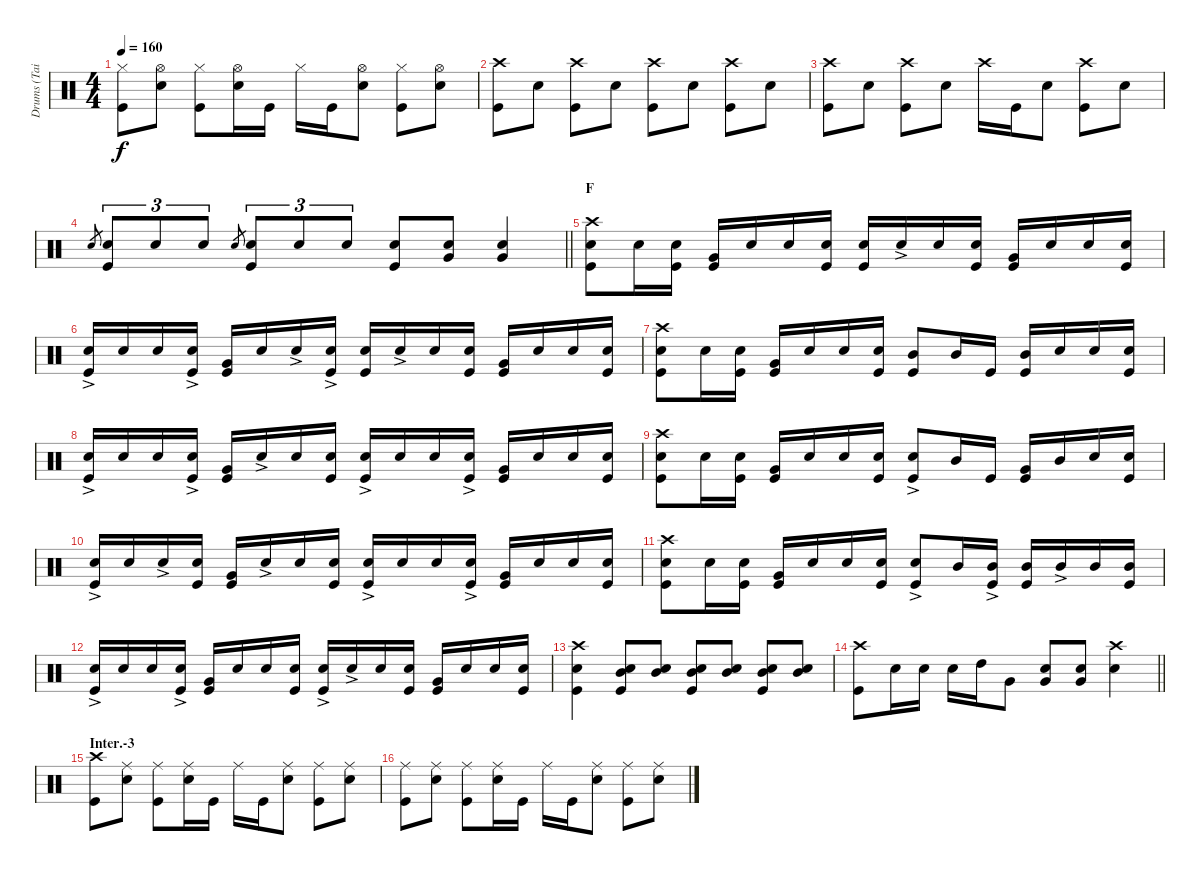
\track ("Drums (Tainaka Ritsu)" "Drums (Tai") {instrument percussion}
\staff {score}
\articulation defaults
\ts (4 4)
\tempo 160
\clef neutral
\ks c
("Hi-Hat (closed)" "Kick (hit)").8{dy f} ("Hi-Hat (open)" "Snare (hit) 2").8 ("Hi-Hat (closed)" "Kick (hit)").8 ("Hi-Hat (open)" "Snare (hit) 2").16 "Kick (hit)".16 "Hi-Hat (closed)".16 "Kick (hit)".16 ("Hi-Hat (open)" "Snare (hit) 2").8 ("Hi-Hat (closed)" "Kick (hit)").8 ("Hi-Hat (open)" "Snare (hit) 2").8 |
("Crash high (hit)" "Kick (hit)").8 "Snare (hit) 2".8 ("Crash high (hit)" "Kick (hit)").8 "Snare (hit) 2".8 ("Crash high (hit)" "Kick (hit)").8 "Snare (hit) 2".8 ("Crash high (hit)" "Kick (hit)").8 "Snare (hit) 2".8 |
("Crash high (hit)" "Kick (hit)").8 "Snare (hit) 2".8 ("Crash high (hit)" "Kick (hit)").8 "Snare (hit) 2".8 "Crash high (hit)".16 "Kick (hit)".16 "Snare (hit) 2".8 ("Crash high (hit)" "Kick (hit)").8 "Snare (hit) 2".8 |
\barLineRight lightlight "Snare (hit) 2".8{gr}
("Snare (hit) 2" "Kick (hit)").8{tu (3 2)} "Snare (hit) 2".8{tu (3 2)} "Snare (hit) 2".8{tu (3 2)} "Snare (hit) 2".8{gr} ("Snare (hit) 2" "Kick (hit)").8{tu (3 2)} "Snare (hit) 2".8{tu (3 2)} "Snare (hit) 2".8{tu (3 2)} ("Snare (hit) 2" "Kick (hit)").8 ("Very Low Tom (hit)" "Snare (hit) 2").8 ("Very Low Tom (hit)" "Snare (hit) 2").4 |
\section ("" "F")
("Crash high (hit)" "Snare (hit) 2" "Kick (hit)").8 "Snare (hit) 2".16 ("Snare (hit) 2" "Kick (hit)").16 ("Very Low Tom (hit)" "Kick (hit)").16 "Snare (hit) 2".16 "Snare (hit) 2".16 ("Snare (hit) 2" "Kick (hit)").16 ("Snare (hit) 2" "Kick (hit)").16 "Snare (hit) 2"{ac}.16 "Snare (hit) 2".16 ("Snare (hit) 2" "Kick (hit)").16 ("Very Low Tom (hit)" "Kick (hit)").16 "Snare (hit) 2".16 "Snare (hit) 2".16 ("Snare (hit) 2" "Kick (hit)").16 |
("Snare (hit) 2"{ac} "Kick (hit)").16 "Snare (hit) 2".16 "Snare (hit) 2".16 ("Snare (hit) 2"{ac} "Kick (hit)").16 ("Very Low Tom (hit)" "Kick (hit)").16 "Snare (hit) 2".16 "Snare (hit) 2"{ac}.16 ("Snare (hit) 2"{ac} "Kick (hit)").16 ("Snare (hit) 2" "Kick (hit)").16 "Snare (hit) 2"{ac}.16 "Snare (hit) 2".16 ("Snare (hit) 2" "Kick (hit)").16 ("Very Low Tom (hit)" "Kick (hit)").16 "Snare (hit) 2".16 "Snare (hit) 2".16 ("Snare (hit) 2" "Kick (hit)").16 |
("Crash high (hit)" "Snare (hit) 2" "Kick (hit)").8 "Snare (hit) 2".16 ("Snare (hit) 2" "Kick (hit)").16 ("Very Low Tom (hit)" "Kick (hit)").16 "Snare (hit) 2".16 "Snare (hit) 2".16 ("Snare (hit) 2" "Kick (hit)").16 ("Mid Tom (hit)" "Kick (hit)").8 "Mid Tom (hit)".16 "Kick (hit)".16 ("Mid Tom (hit)" "Kick (hit)").16 "Snare (hit) 2".16 "Snare (hit) 2".16 ("Snare (hit) 2" "Kick (hit)").16 |
("Snare (hit) 2"{ac} "Kick (hit)").16 "Snare (hit) 2".16 "Snare (hit) 2".16 ("Snare (hit) 2"{ac} "Kick (hit)").16 ("Very Low Tom (hit)" "Kick (hit)").16 "Snare (hit) 2"{ac}.16 "Snare (hit) 2".16 ("Snare (hit) 2" "Kick (hit)").16 ("Snare (hit) 2"{ac} "Kick (hit)").16 "Snare (hit) 2".16 "Snare (hit) 2".16 ("Snare (hit) 2"{ac} "Kick (hit)").16 ("Very Low Tom (hit)" "Kick (hit)").16 "Snare (hit) 2".16 "Snare (hit) 2".16 ("Snare (hit) 2" "Kick (hit)").16 |
("Crash high (hit)" "Snare (hit) 2" "Kick (hit)").8 "Snare (hit) 2".16 ("Snare (hit) 2" "Kick (hit)").16 ("Very Low Tom (hit)" "Kick (hit)").16 "Snare (hit) 2".16 "Snare (hit) 2".16 ("Snare (hit) 2" "Kick (hit)").16 ("Snare (hit) 2"{ac} "Kick (hit)").8 "Mid Tom (hit)".16 "Kick (hit)".16 ("Very Low Tom (hit)" "Kick (hit)").16 "Mid Tom (hit)".16 "Snare (hit) 2".16 ("Snare (hit) 2" "Kick (hit)").16 |
("Snare (hit) 2"{ac} "Kick (hit)").16 "Snare (hit) 2".16 "Snare (hit) 2"{ac}.16 ("Snare (hit) 2" "Kick (hit)").16 ("Very Low Tom (hit)" "Kick (hit)").16 "Snare (hit) 2"{ac}.16 "Snare (hit) 2".16 ("Snare (hit) 2" "Kick (hit)").16 ("Snare (hit) 2"{ac} "Kick (hit)").16 "Snare (hit) 2".16 "Snare (hit) 2".16 ("Snare (hit) 2"{ac} "Kick (hit)").16 ("Very Low Tom (hit)" "Kick (hit)").16 "Snare (hit) 2".16 "Snare (hit) 2".16 ("Snare (hit) 2" "Kick (hit)").16 |
("Crash high (hit)" "Snare (hit) 2" "Kick (hit)").8 "Snare (hit) 2".16 ("Snare (hit) 2" "Kick (hit)").16 ("Very Low Tom (hit)" "Kick (hit)").16 "Snare (hit) 2".16 "Snare (hit) 2".16 ("Snare (hit) 2" "Kick (hit)").16 ("Snare (hit) 2"{ac} "Kick (hit)").8 "Mid Tom (hit)".16 ("Mid Tom (hit)"{ac} "Kick (hit)").16 ("Mid Tom (hit)" "Kick (hit)").16 "Mid Tom (hit)"{ac}.16 "Mid Tom (hit)".16 ("Mid Tom (hit)" "Kick (hit)").16 |
("Snare (hit) 2"{ac} "Kick (hit)").16 "Snare (hit) 2".16 "Snare (hit) 2".16 ("Snare (hit) 2"{ac} "Kick (hit)").16 ("Very Low Tom (hit)" "Kick (hit)").16 "Snare (hit) 2".16 "Snare (hit) 2".16 ("Snare (hit) 2" "Kick (hit)").16 ("Snare (hit) 2"{ac} "Kick (hit)").16 "Snare (hit) 2"{ac}.16 "Snare (hit) 2".16 ("Snare (hit) 2" "Kick (hit)").16 ("Very Low Tom (hit)" "Kick (hit)").16 "Snare (hit) 2".16 "Snare (hit) 2".16 ("Snare (hit) 2" "Kick (hit)").16 |
("Crash high (hit)" "Snare (hit) 2" "Kick (hit)").4 ("Mid Tom (hit)" "Snare (hit) 2" "Kick (hit)").8 ("Mid Tom (hit)" "Snare (hit) 2").8 ("Mid Tom (hit)" "Snare (hit) 2" "Kick (hit)").8 ("Mid Tom (hit)" "Snare (hit) 2").8 ("Mid Tom (hit)" "Snare (hit) 2" "Kick (hit)").8 ("Mid Tom (hit)" "Snare (hit) 2").8 |
\barLineRight lightlight
("Crash high (hit)" "Kick (hit)").8 "Snare (hit) 2".16 "Snare (hit) 2".16 "Snare (hit) 2".16 "High Tom (hit)".16 "Very Low Tom (hit)".8 ("Snare (hit) 2" "Very Low Tom (hit)").8 ("Snare (hit) 2" "Very Low Tom (hit)").8 ("Crash high (hit)" "Snare (hit) 2").4 |
\section ("" "Inter.-3")
("Crash high (hit)" "Kick (hit)").8 ("Ride (middle)" "Snare (hit) 2").8 ("Ride (middle)" "Kick (hit)").8 ("Ride (middle)" "Snare (hit) 2").16 "Kick (hit)".16 "Ride (middle)".16 "Kick (hit)".16 ("Ride (middle)" "Snare (hit) 2").8 ("Ride (middle)" "Kick (hit)").8 ("Ride (middle)" "Snare (hit) 2").8 |
("Ride (middle)" "Kick (hit)").8 ("Ride (middle)" "Snare (hit) 2").8 ("Ride (middle)" "Kick (hit)").8 ("Ride (middle)" "Snare (hit) 2").16 "Kick (hit)".16 "Ride (middle)".16 "Kick (hit)".16 ("Ride (middle)" "Snare (hit) 2").8 ("Ride (middle)" "Kick (hit)").8 ("Ride (middle)" "Snare (hit) 2").8
